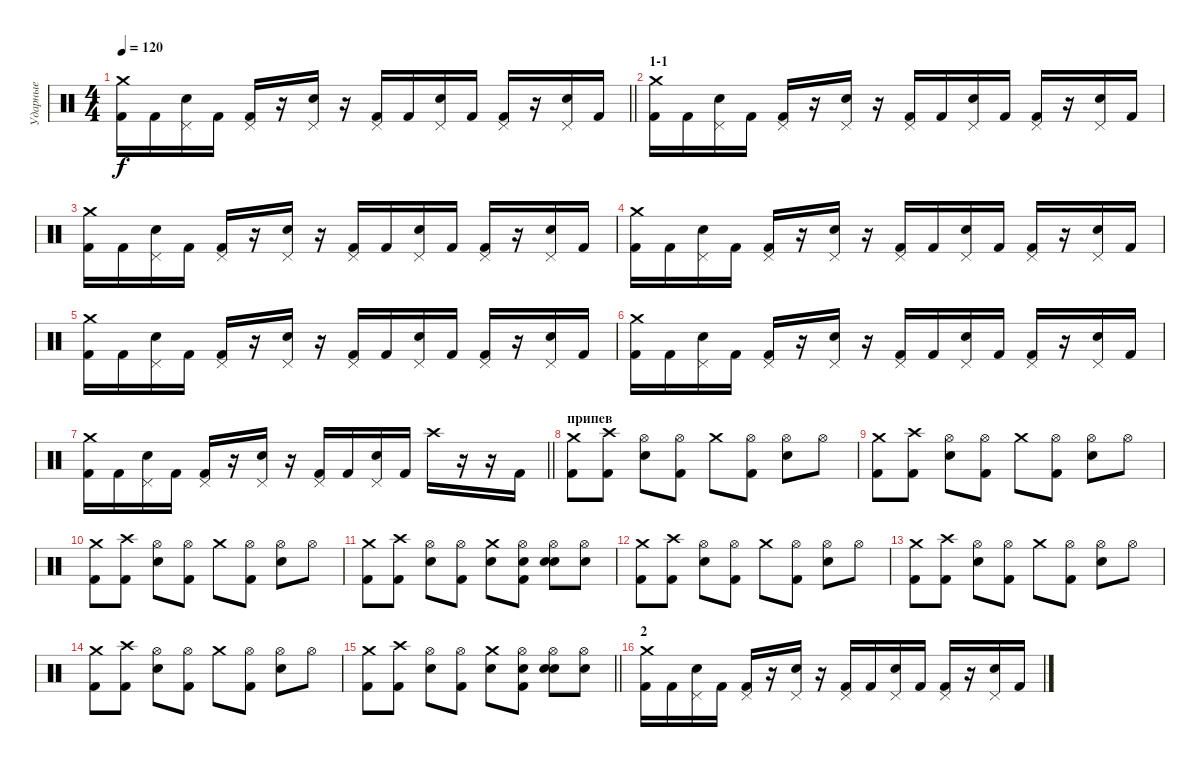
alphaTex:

\track ("Ударные" "Ударные") {instrument percussion}
\staff {score}
\articulation defaults
\ts (4 4)
\tempo 120
\clef neutral
\barLineRight lightlight
\ks c
("Crash medium (hit)" "Kick (hit) 2").16{dy f} "Kick (hit) 2".16 ("Pedal Hi-Hat (hit)" "Electric Snare (hit)").16 "Kick (hit) 2".16 ("Pedal Hi-Hat (hit)" "Kick (hit) 2").16 r.16 ("Pedal Hi-Hat (hit)" "Electric Snare (hit)").16 r.16 ("Pedal Hi-Hat (hit)" "Kick (hit) 2").16 "Kick (hit) 2".16 ("Pedal Hi-Hat (hit)" "Electric Snare (hit)").16 "Kick (hit) 2".16 ("Pedal Hi-Hat (hit)" "Kick (hit) 2").16 r.16 ("Pedal Hi-Hat (hit)" "Electric Snare (hit)").16 "Kick (hit) 2".16 |
\section ("" "1-1")
("Crash medium (hit)" "Kick (hit) 2").16 "Kick (hit) 2".16 ("Pedal Hi-Hat (hit)" "Electric Snare (hit)").16 "Kick (hit) 2".16 ("Pedal Hi-Hat (hit)" "Kick (hit) 2").16 r.16 ("Pedal Hi-Hat (hit)" "Electric Snare (hit)").16 r.16 ("Pedal Hi-Hat (hit)" "Kick (hit) 2").16 "Kick (hit) 2".16 ("Pedal Hi-Hat (hit)" "Electric Snare (hit)").16 "Kick (hit) 2".16 ("Pedal Hi-Hat (hit)" "Kick (hit) 2").16 r.16 ("Pedal Hi-Hat (hit)" "Electric Snare (hit)").16 "Kick (hit) 2".16 |
("Crash medium (hit)" "Kick (hit) 2").16 "Kick (hit) 2".16 ("Pedal Hi-Hat (hit)" "Electric Snare (hit)").16 "Kick (hit) 2".16 ("Pedal Hi-Hat (hit)" "Kick (hit) 2").16 r.16 ("Pedal Hi-Hat (hit)" "Electric Snare (hit)").16 r.16 ("Pedal Hi-Hat (hit)" "Kick (hit) 2").16 "Kick (hit) 2".16 ("Pedal Hi-Hat (hit)" "Electric Snare (hit)").16 "Kick (hit) 2".16 ("Pedal Hi-Hat (hit)" "Kick (hit) 2").16 r.16 ("Pedal Hi-Hat (hit)" "Electric Snare (hit)").16 "Kick (hit) 2".16 |
("Crash medium (hit)" "Kick (hit) 2").16 "Kick (hit) 2".16 ("Pedal Hi-Hat (hit)" "Electric Snare (hit)").16 "Kick (hit) 2".16 ("Pedal Hi-Hat (hit)" "Kick (hit) 2").16 r.16 ("Pedal Hi-Hat (hit)" "Electric Snare (hit)").16 r.16 ("Pedal Hi-Hat (hit)" "Kick (hit) 2").16 "Kick (hit) 2".16 ("Pedal Hi-Hat (hit)" "Electric Snare (hit)").16 "Kick (hit) 2".16 ("Pedal Hi-Hat (hit)" "Kick (hit) 2").16 r.16 ("Pedal Hi-Hat (hit)" "Electric Snare (hit)").16 "Kick (hit) 2".16 |
("Crash medium (hit)" "Kick (hit) 2").16 "Kick (hit) 2".16 ("Pedal Hi-Hat (hit)" "Electric Snare (hit)").16 "Kick (hit) 2".16 ("Pedal Hi-Hat (hit)" "Kick (hit) 2").16 r.16 ("Pedal Hi-Hat (hit)" "Electric Snare (hit)").16 r.16 ("Pedal Hi-Hat (hit)" "Kick (hit) 2").16 "Kick (hit) 2".16 ("Pedal Hi-Hat (hit)" "Electric Snare (hit)").16 "Kick (hit) 2".16 ("Pedal Hi-Hat (hit)" "Kick (hit) 2").16 r.16 ("Pedal Hi-Hat (hit)" "Electric Snare (hit)").16 "Kick (hit) 2".16 |
("Crash medium (hit)" "Kick (hit) 2").16 "Kick (hit) 2".16 ("Pedal Hi-Hat (hit)" "Electric Snare (hit)").16 "Kick (hit) 2".16 ("Pedal Hi-Hat (hit)" "Kick (hit) 2").16 r.16 ("Pedal Hi-Hat (hit)" "Electric Snare (hit)").16 r.16 ("Pedal Hi-Hat (hit)" "Kick (hit) 2").16 "Kick (hit) 2".16 ("Pedal Hi-Hat (hit)" "Electric Snare (hit)").16 "Kick (hit) 2".16 ("Pedal Hi-Hat (hit)" "Kick (hit) 2").16 r.16 ("Pedal Hi-Hat (hit)" "Electric Snare (hit)").16 "Kick (hit) 2".16 |
\barLineRight lightlight
("Crash medium (hit)" "Kick (hit) 2").16 "Kick (hit) 2".16 ("Pedal Hi-Hat (hit)" "Electric Snare (hit)").16 "Kick (hit) 2".16 ("Pedal Hi-Hat (hit)" "Kick (hit) 2").16 r.16 ("Pedal Hi-Hat (hit)" "Electric Snare (hit)").16 r.16 ("Pedal Hi-Hat (hit)" "Kick (hit) 2").16 "Kick (hit) 2".16 ("Pedal Hi-Hat (hit)" "Electric Snare (hit)").16 "Kick (hit) 2".16 "Crash high (hit)".16 r.16 r.16 "Kick (hit) 2".16 |
\section ("" "припев")
("Crash medium (hit)" "Kick (hit) 2").8 ("Crash high (hit)" "Kick (hit) 2").8 ("Hi-Hat (open)" "Electric Snare (hit)").8 ("Hi-Hat (open)" "Kick (hit) 2").8 "Crash medium (hit)".8 ("Hi-Hat (open)" "Kick (hit) 2").8 ("Hi-Hat (open)" "Electric Snare (hit)").8 "Hi-Hat (open)".8 |
("Crash medium (hit)" "Kick (hit) 2").8 ("Crash high (hit)" "Kick (hit) 2").8 ("Hi-Hat (open)" "Electric Snare (hit)").8 ("Hi-Hat (open)" "Kick (hit) 2").8 "Crash medium (hit)".8 ("Hi-Hat (open)" "Kick (hit) 2").8 ("Hi-Hat (open)" "Electric Snare (hit)").8 "Hi-Hat (open)".8 |
("Crash medium (hit)" "Kick (hit) 2").8 ("Crash high (hit)" "Kick (hit) 2").8 ("Hi-Hat (open)" "Electric Snare (hit)").8 ("Hi-Hat (open)" "Kick (hit) 2").8 "Crash medium (hit)".8 ("Hi-Hat (open)" "Kick (hit) 2").8 ("Hi-Hat (open)" "Electric Snare (hit)").8 "Hi-Hat (open)".8 |
("Crash medium (hit)" "Kick (hit) 2").8 ("Crash high (hit)" "Kick (hit) 2").8 ("Hi-Hat (open)" "Electric Snare (hit)").8 ("Hi-Hat (open)" "Kick (hit) 2").8 ("Crash medium (hit)" "Electric Snare (hit)").8 ("Hi-Hat (open)" "Electric Snare (hit)" "Kick (hit) 2").8 ("Hi-Hat (open)" "Electric Snare (hit)" "Electric Snare (hit)").8 ("Hi-Hat (open)" "Electric Snare (hit)").8 |
("Crash medium (hit)" "Kick (hit) 2").8 ("Crash high (hit)" "Kick (hit) 2").8 ("Hi-Hat (open)" "Electric Snare (hit)").8 ("Hi-Hat (open)" "Kick (hit) 2").8 "Crash medium (hit)".8 ("Hi-Hat (open)" "Kick (hit) 2").8 ("Hi-Hat (open)" "Electric Snare (hit)").8 "Hi-Hat (open)".8 |
("Crash medium (hit)" "Kick (hit) 2").8 ("Crash high (hit)" "Kick (hit) 2").8 ("Hi-Hat (open)" "Electric Snare (hit)").8 ("Hi-Hat (open)" "Kick (hit) 2").8 "Crash medium (hit)".8 ("Hi-Hat (open)" "Kick (hit) 2").8 ("Hi-Hat (open)" "Electric Snare (hit)").8 "Hi-Hat (open)".8 |
("Crash medium (hit)" "Kick (hit) 2").8 ("Crash high (hit)" "Kick (hit) 2").8 ("Hi-Hat (open)" "Electric Snare (hit)").8 ("Hi-Hat (open)" "Kick (hit) 2").8 "Crash medium (hit)".8 ("Hi-Hat (open)" "Kick (hit) 2").8 ("Hi-Hat (open)" "Electric Snare (hit)").8 "Hi-Hat (open)".8 |
\barLineRight lightlight
("Crash medium (hit)" "Kick (hit) 2").8 ("Crash high (hit)" "Kick (hit) 2").8 ("Hi-Hat (open)" "Electric Snare (hit)").8 ("Hi-Hat (open)" "Kick (hit) 2").8 ("Crash medium (hit)" "Electric Snare (hit)").8 ("Hi-Hat (open)" "Electric Snare (hit)" "Kick (hit) 2").8 ("Hi-Hat (open)" "Electric Snare (hit)" "Electric Snare (hit)").8 ("Hi-Hat (open)" "Electric Snare (hit)").8 |
\section ("" "2")
("Crash medium (hit)" "Kick (hit) 2").16 "Kick (hit) 2".16 ("Pedal Hi-Hat (hit)" "Electric Snare (hit)").16 "Kick (hit) 2".16 ("Pedal Hi-Hat (hit)" "Kick (hit) 2").16 r.16 ("Pedal Hi-Hat (hit)" "Electric Snare (hit)").16 r.16 ("Pedal Hi-Hat (hit)" "Kick (hit) 2").16 "Kick (hit) 2".16 ("Pedal Hi-Hat (hit)" "Electric Snare (hit)").16 "Kick (hit) 2".16 ("Pedal Hi-Hat (hit)" "Kick (hit) 2").16 r.16 ("Pedal Hi-Hat (hit)" "Electric Snare (hit)").16 "Kick (hit) 2".16
